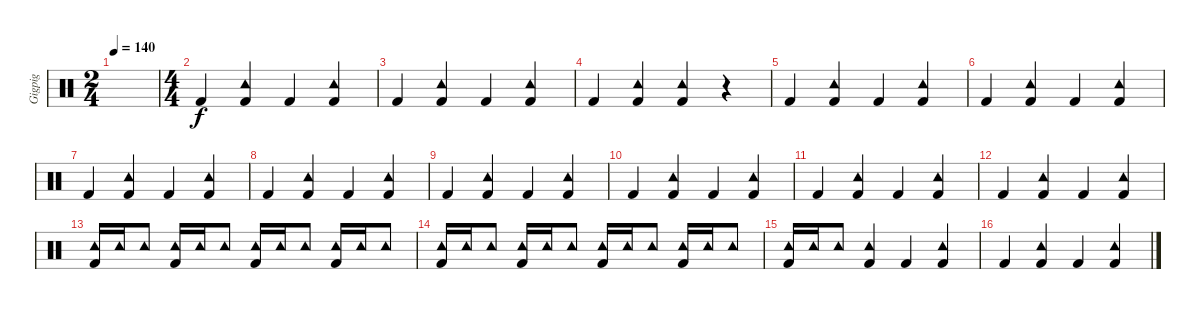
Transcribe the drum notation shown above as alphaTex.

\track ("Gigpig" "Gigpig") {instrument percussion}
\staff {score}
\articulation defaults
\ts (2 4)
\tempo 140
\clef neutral
\ks c
|
\ts (4 4)
"Kick (hit) 2".4 ("Tambourine (hit)" "Kick (hit) 2").4 "Kick (hit) 2".4 ("Tambourine (hit)" "Kick (hit) 2").4 |
"Kick (hit) 2".4 ("Tambourine (hit)" "Kick (hit) 2").4 "Kick (hit) 2".4 ("Tambourine (hit)" "Kick (hit) 2").4 |
"Kick (hit) 2".4 ("Tambourine (hit)" "Kick (hit) 2").4 ("Tambourine (hit)" "Kick (hit) 2").4 r.4 |
"Kick (hit) 2".4 ("Tambourine (hit)" "Kick (hit) 2").4 "Kick (hit) 2".4 ("Tambourine (hit)" "Kick (hit) 2").4 |
"Kick (hit) 2".4 ("Tambourine (hit)" "Kick (hit) 2").4 "Kick (hit) 2".4 ("Tambourine (hit)" "Kick (hit) 2").4 |
"Kick (hit) 2".4 ("Tambourine (hit)" "Kick (hit) 2").4 "Kick (hit) 2".4 ("Tambourine (hit)" "Kick (hit) 2").4 |
"Kick (hit) 2".4 ("Tambourine (hit)" "Kick (hit) 2").4 "Kick (hit) 2".4 ("Tambourine (hit)" "Kick (hit) 2").4 |
"Kick (hit) 2".4 ("Tambourine (hit)" "Kick (hit) 2").4 "Kick (hit) 2".4 ("Tambourine (hit)" "Kick (hit) 2").4 |
"Kick (hit) 2".4 ("Tambourine (hit)" "Kick (hit) 2").4 "Kick (hit) 2".4 ("Tambourine (hit)" "Kick (hit) 2").4 |
"Kick (hit) 2".4 ("Tambourine (hit)" "Kick (hit) 2").4 "Kick (hit) 2".4 ("Tambourine (hit)" "Kick (hit) 2").4 |
"Kick (hit) 2".4 ("Tambourine (hit)" "Kick (hit) 2").4 "Kick (hit) 2".4 ("Tambourine (hit)" "Kick (hit) 2").4 |
("Tambourine (hit)" "Kick (hit) 2").16 "Tambourine (hit)".16 "Tambourine (hit)".8 ("Tambourine (hit)" "Kick (hit) 2").16 "Tambourine (hit)".16 "Tambourine (hit)".8 ("Tambourine (hit)" "Kick (hit) 2").16 "Tambourine (hit)".16 "Tambourine (hit)".8 ("Tambourine (hit)" "Kick (hit) 2").16 "Tambourine (hit)".16 "Tambourine (hit)".8 |
("Tambourine (hit)" "Kick (hit) 2").16 "Tambourine (hit)".16 "Tambourine (hit)".8 ("Tambourine (hit)" "Kick (hit) 2").16 "Tambourine (hit)".16 "Tambourine (hit)".8 ("Tambourine (hit)" "Kick (hit) 2").16 "Tambourine (hit)".16 "Tambourine (hit)".8 ("Tambourine (hit)" "Kick (hit) 2").16 "Tambourine (hit)".16 "Tambourine (hit)".8 |
("Tambourine (hit)" "Kick (hit) 2").16 "Tambourine (hit)".16 "Tambourine (hit)".8 ("Tambourine (hit)" "Kick (hit) 2").4 "Kick (hit) 2".4 ("Tambourine (hit)" "Kick (hit) 2").4 |
"Kick (hit) 2".4 ("Tambourine (hit)" "Kick (hit) 2").4 "Kick (hit) 2".4 ("Tambourine (hit)" "Kick (hit) 2").4
